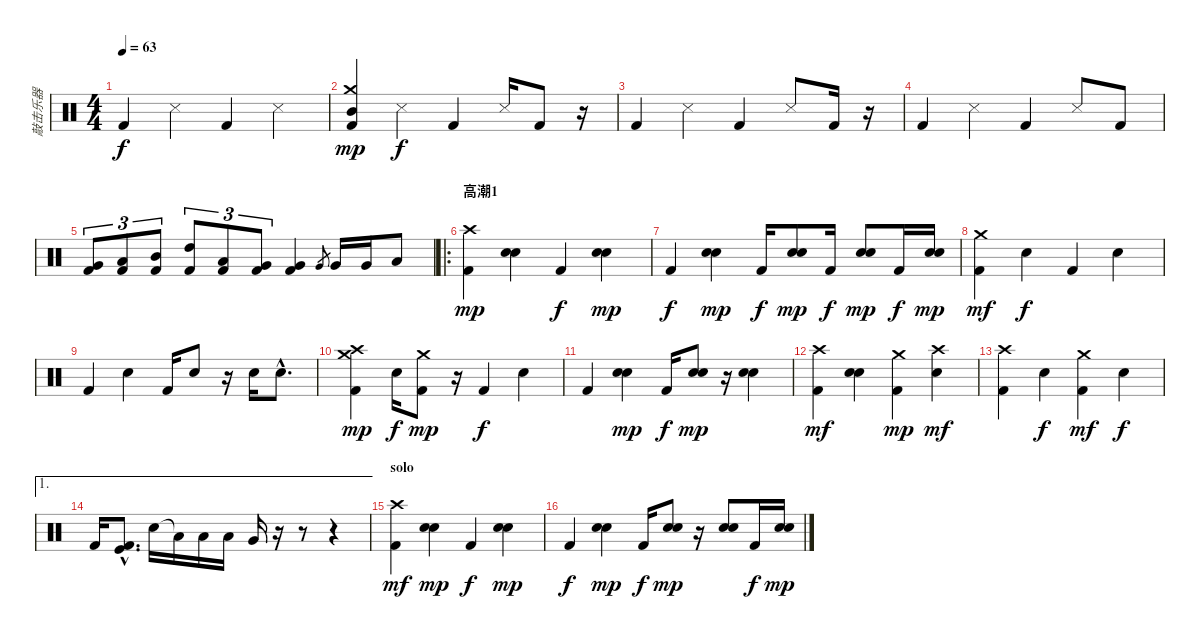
\track ("敲击乐器" "敲击乐器") {instrument percussion}
\staff {score}
\articulation defaults
\ts (4 4)
\tempo 63
\clef neutral
\ks c "Kick (hit) 2".4{dy f} "Snare (side stick) 3".4 "Kick (hit) 2".4 "Snare (side stick) 3".4
|
("Crash medium (hit)" "Kick (hit) 2" "Mid Tom (hit)").4{dy mp} "Snare (side stick) 3".4{dy f} "Kick (hit) 2".4 "Snare (side stick) 3".16 "Kick (hit) 2".8 r.16 |
"Kick (hit) 2".4 "Snare (side stick) 3".4 "Kick (hit) 2".4 "Snare (side stick) 3".8 "Kick (hit) 2".16 r.16 |
"Kick (hit) 2".4 "Snare (side stick) 3".4 "Kick (hit) 2".4 "Snare (side stick) 3".8 "Kick (hit) 2".8 |
("Kick (hit) 2" "Very Low Tom (hit)").8{tu (3 2)} ("Kick (hit) 2" "Low Tom (hit)").8{tu (3 2)} ("Kick (hit) 2" "Mid Tom (hit)").8{tu (3 2)} ("Kick (hit) 2" "High Tom (hit)").8{tu (3 2)} ("Kick (hit) 2" "Low Tom (hit)").8{tu (3 2)} ("Kick (hit) 2" "Very Low Tom (hit)").8{tu (3 2)} ("Kick (hit) 2" "Very Low Tom (hit)").4 "Very Low Tom (hit)".8{gr} "Very Low Tom (hit)".16 "Very Low Tom (hit)".16 "Low Tom (hit)".8 |
\ro
\section ("" "高潮1")
("Kick (hit) 2" "Crash high (hit)").4{dy mp} ("Snare (hit) 2" "Electric Snare (hit)").4 "Kick (hit) 2".4{dy f} ("Snare (hit) 2" "Electric Snare (hit)").4{dy mp} |
"Kick (hit) 2".4{dy f} ("Electric Snare (hit)" "Snare (hit) 2").4{dy mp} "Kick (hit) 2".16{dy f} ("Electric Snare (hit)" "Snare (hit) 2").8{dy mp} "Kick (hit) 2".16{dy f} ("Electric Snare (hit)" "Snare (hit) 2").8{dy mp} "Kick (hit) 2".16{dy f} ("Electric Snare (hit)" "Snare (hit) 2").16{dy mp} |
("Crash medium (hit)" "Kick (hit) 2").4{dy mf} "Snare (hit) 2".4{dy f} "Kick (hit) 2".4 "Snare (hit) 2".4 |
"Kick (hit) 2".4 "Snare (hit) 2".4 "Kick (hit) 2".16 "Snare (hit) 2".8 r.16 "Snare (hit) 2".16 "Snare (hit) 2"{hac}.8{d} |
("Crash high (hit)" "Crash medium (hit)" "Kick (hit) 2").4{dy mp} "Snare (hit) 2".16{dy f} ("Crash medium (hit)" "Kick (hit) 2").8{dy mp} r.16 "Kick (hit) 2".4{dy f} "Snare (hit) 2".4 |
"Kick (hit) 2".4 ("Electric Snare (hit)" "Snare (hit) 2").4{dy mp} "Kick (hit) 2".16{dy f} ("Electric Snare (hit)" "Snare (hit) 2").8{dy mp} r.16 ("Electric Snare (hit)" "Snare (hit) 2").4 |
("Crash high (hit)" "Kick (hit) 2").4{dy mf} ("Electric Snare (hit)" "Snare (hit) 2").4 ("Crash medium (hit)" "Kick (hit) 2").4{dy mp} ("Crash high (hit)" "Snare (hit) 2").4{dy mf} |
("Crash high (hit)" "Kick (hit) 2").4 "Snare (hit) 2".4{dy f} ("Crash medium (hit)" "Kick (hit) 2").4{dy mf} "Snare (hit) 2".4{dy f} |
\ae 1 "Kick (hit) 2".16
("Kick (hit) 2"{hac} "Kick (hit)"{hac}).8{d} "Snare (hit) 2".16 "Low Tom (hit)"{t}.16 "Low Tom (hit)".16 "Low Tom (hit)".16 "Very Low Tom (hit)".16 r.16 r.8 r.4 |
\section ("" "solo")
("Crash high (hit)" "Kick (hit) 2").4{dy mf} ("Electric Snare (hit)" "Snare (hit) 2").4{dy mp} "Kick (hit) 2".4{dy f} ("Electric Snare (hit)" "Snare (hit) 2").4{dy mp} |
"Kick (hit) 2".4{dy f} ("Electric Snare (hit)" "Snare (hit) 2").4{dy mp} "Kick (hit) 2".16{dy f} ("Electric Snare (hit)" "Snare (hit) 2").8{dy mp} r.16 ("Electric Snare (hit)" "Snare (hit) 2").8 "Kick (hit) 2".16{dy f} ("Electric Snare (hit)" "Snare (hit) 2").16{dy mp}
